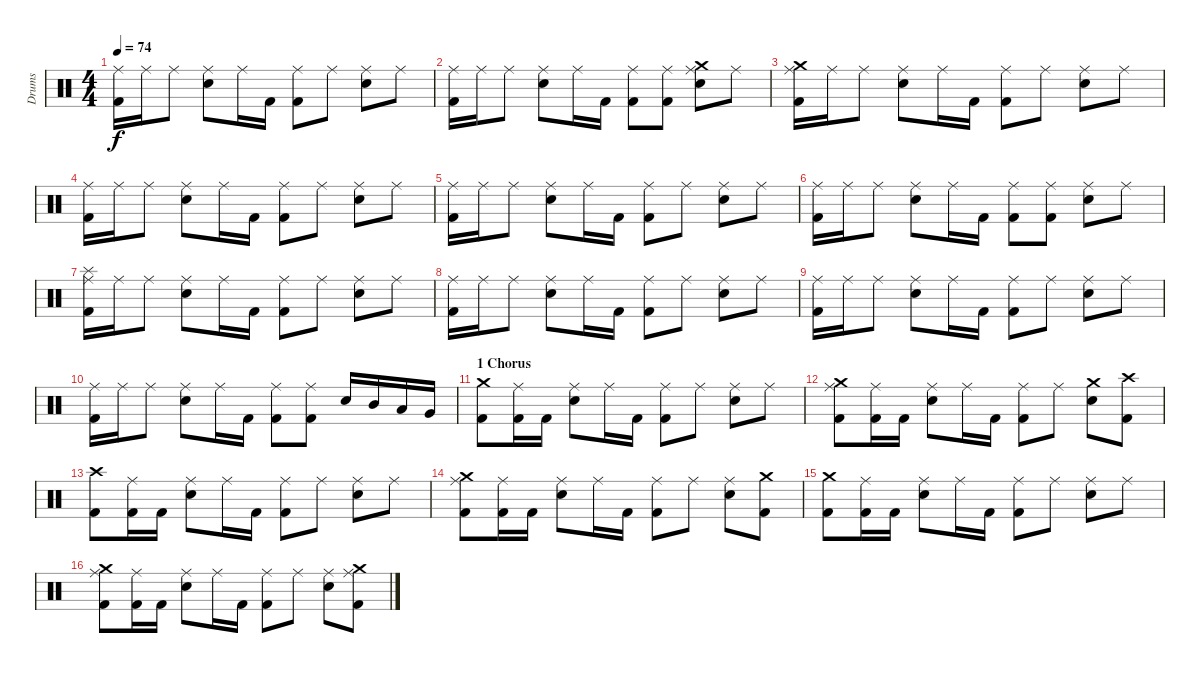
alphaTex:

\track ("Drums" "Drums") {instrument percussion}
\staff {score}
\articulation defaults
\ts (4 4)
\tempo 74
\clef neutral
\ks c
("Ride (middle)" "Kick (hit) 2").16{dy f} "Ride (middle)".16 "Ride (middle)".8 ("Ride (middle)" "Snare (hit) 2").8 "Ride (middle)".16 "Kick (hit) 2".16 ("Ride (middle)" "Kick (hit) 2").8 "Ride (middle)".8 ("Ride (middle)" "Snare (hit) 2").8 "Ride (middle)".8 |
("Ride (middle)" "Kick (hit) 2").16 "Ride (middle)".16 "Ride (middle)".8 ("Ride (middle)" "Snare (hit) 2").8 "Ride (middle)".16 "Kick (hit) 2".16 ("Ride (middle)" "Kick (hit) 2").8 ("Ride (middle)" "Kick (hit) 2").8 ("Ride (middle)" "Crash medium (hit)" "Snare (hit) 2").8 "Ride (middle)".8 |
("Ride (middle)" "Crash medium (hit)" "Kick (hit) 2").16 "Ride (middle)".16 "Ride (middle)".8 ("Ride (middle)" "Snare (hit) 2").8 "Ride (middle)".16 "Kick (hit) 2".16 ("Ride (middle)" "Kick (hit) 2").8 "Ride (middle)".8 ("Ride (middle)" "Snare (hit) 2").8 "Ride (middle)".8 |
("Ride (middle)" "Kick (hit) 2").16 "Ride (middle)".16 "Ride (middle)".8 ("Ride (middle)" "Snare (hit) 2").8 "Ride (middle)".16 "Kick (hit) 2".16 ("Ride (middle)" "Kick (hit) 2").8 "Ride (middle)".8 ("Ride (middle)" "Snare (hit) 2").8 "Ride (middle)".8 |
("Ride (middle)" "Kick (hit) 2").16 "Ride (middle)".16 "Ride (middle)".8 ("Ride (middle)" "Snare (hit) 2").8 "Ride (middle)".16 "Kick (hit) 2".16 ("Ride (middle)" "Kick (hit) 2").8 "Ride (middle)".8 ("Ride (middle)" "Snare (hit) 2").8 "Ride (middle)".8 |
("Ride (middle)" "Kick (hit) 2").16 "Ride (middle)".16 "Ride (middle)".8 ("Ride (middle)" "Snare (hit) 2").8 "Ride (middle)".16 "Kick (hit) 2".16 ("Ride (middle)" "Kick (hit) 2").8 ("Ride (middle)" "Kick (hit) 2").8 ("Ride (middle)" "Snare (hit) 2").8 "Ride (middle)".8 |
("Ride (middle)" "Splash (hit)" "Kick (hit) 2").16 "Ride (middle)".16 "Ride (middle)".8 ("Ride (middle)" "Snare (hit) 2").8 "Ride (middle)".16 "Kick (hit) 2".16 ("Ride (middle)" "Kick (hit) 2").8 "Ride (middle)".8 ("Ride (middle)" "Snare (hit) 2").8 "Ride (middle)".8 |
("Ride (middle)" "Kick (hit) 2").16 "Ride (middle)".16 "Ride (middle)".8 ("Ride (middle)" "Snare (hit) 2").8 "Ride (middle)".16 "Kick (hit) 2".16 ("Ride (middle)" "Kick (hit) 2").8 "Ride (middle)".8 ("Ride (middle)" "Snare (hit) 2").8 "Ride (middle)".8 |
("Ride (middle)" "Kick (hit) 2").16 "Ride (middle)".16 "Ride (middle)".8 ("Ride (middle)" "Snare (hit) 2").8 "Ride (middle)".16 "Kick (hit) 2".16 ("Ride (middle)" "Kick (hit) 2").8 "Ride (middle)".8 ("Ride (middle)" "Snare (hit) 2").8 "Ride (middle)".8 |
("Ride (middle)" "Kick (hit) 2").16 "Ride (middle)".16 "Ride (middle)".8 ("Ride (middle)" "Snare (hit) 2").8 "Ride (middle)".16 "Kick (hit) 2".16 ("Ride (middle)" "Kick (hit) 2").8 ("Ride (middle)" "Kick (hit) 2").8 "Snare (hit) 2".16 "Mid Tom (hit)".16 "Low Tom (hit)".16 "Very Low Tom (hit)".16 |
\section ("" "1 Chorus")
("Crash medium (hit)" "Kick (hit) 2").8 ("Ride (middle)" "Kick (hit) 2").16 "Kick (hit) 2".16 ("Ride (middle)" "Snare (hit) 2").8 "Ride (middle)".16 "Kick (hit) 2".16 ("Ride (middle)" "Kick (hit) 2").8 "Ride (middle)".8 ("Ride (middle)" "Snare (hit) 2").8 "Ride (middle)".8 |
("Ride (middle)" "Crash medium (hit)" "Kick (hit) 2").8 ("Ride (middle)" "Kick (hit) 2").16 "Kick (hit) 2".16 ("Ride (middle)" "Snare (hit) 2").8 "Ride (middle)".16 "Kick (hit) 2".16 ("Ride (middle)" "Kick (hit) 2").8 "Ride (middle)".8 ("Crash medium (hit)" "Snare (hit) 2").8 ("Crash high (hit)" "Kick (hit) 2").8 |
("Crash high (hit)" "Kick (hit) 2").8 ("Ride (middle)" "Kick (hit) 2").16 "Kick (hit) 2".16 ("Ride (middle)" "Snare (hit) 2").8 "Ride (middle)".16 "Kick (hit) 2".16 ("Ride (middle)" "Kick (hit) 2").8 "Ride (middle)".8 ("Ride (middle)" "Snare (hit) 2").8 "Ride (middle)".8 |
("Ride (middle)" "Crash medium (hit)" "Kick (hit) 2").8 ("Ride (middle)" "Kick (hit) 2").16 "Kick (hit) 2".16 ("Ride (middle)" "Snare (hit) 2").8 "Ride (middle)".16 "Kick (hit) 2".16 ("Ride (middle)" "Kick (hit) 2").8 "Ride (middle)".8 ("Ride (middle)" "Snare (hit) 2").8 ("Crash medium (hit)" "Kick (hit) 2").8 |
("Crash medium (hit)" "Kick (hit) 2").8 ("Ride (middle)" "Kick (hit) 2").16 "Kick (hit) 2".16 ("Ride (middle)" "Snare (hit) 2").8 "Ride (middle)".16 "Kick (hit) 2".16 ("Ride (middle)" "Kick (hit) 2").8 "Ride (middle)".8 ("Ride (middle)" "Snare (hit) 2").8 "Ride (middle)".8 |
("Ride (middle)" "Crash medium (hit)" "Kick (hit) 2").8 ("Ride (middle)" "Kick (hit) 2").16 "Kick (hit) 2".16 ("Ride (middle)" "Snare (hit) 2").8 "Ride (middle)".16 "Kick (hit) 2".16 ("Ride (middle)" "Kick (hit) 2").8 "Ride (middle)".8 ("Ride (middle)" "Snare (hit) 2").8 ("Ride (middle)" "Crash medium (hit)" "Kick (hit) 2").8
